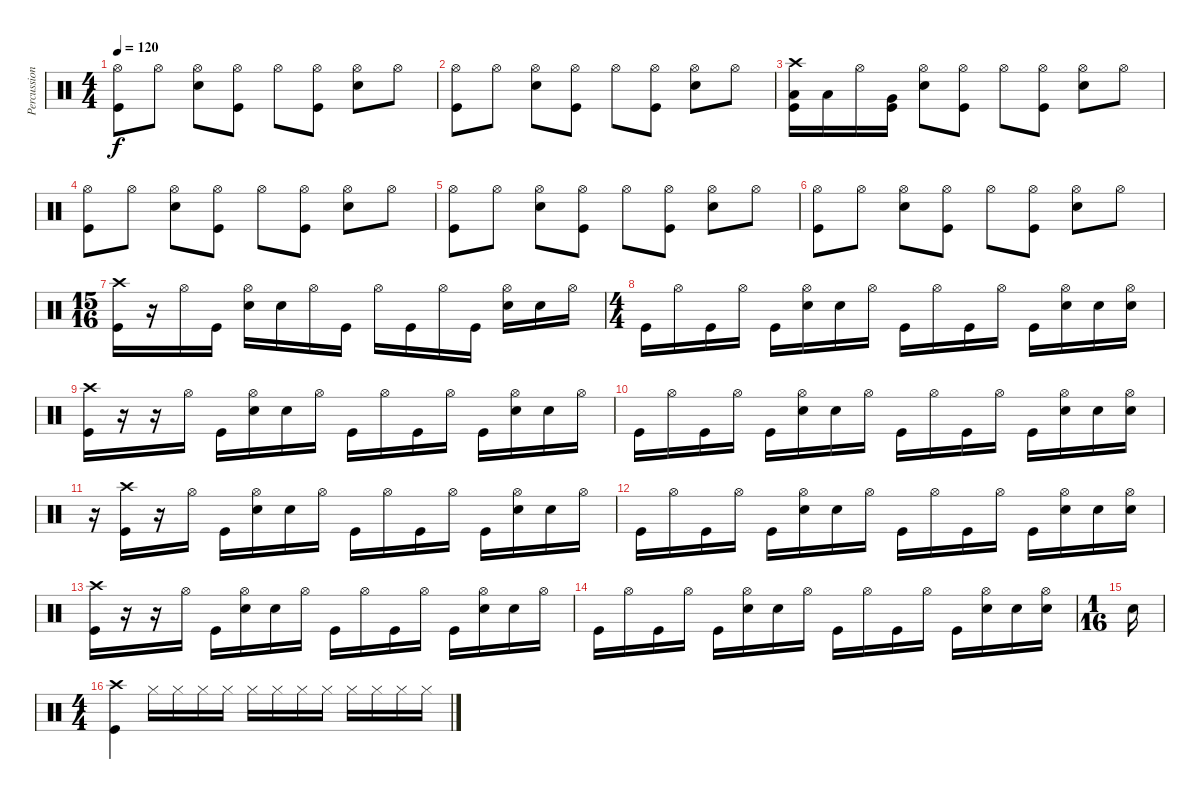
\track ("Percussion" "Percussion") {instrument percussion}
\staff {score}
\articulation defaults
\ts (4 4)
\tempo 120
\clef neutral
\ks c
("Hi-Hat (open)" "Kick (hit)").8{dy f} "Hi-Hat (open)".8 ("Hi-Hat (open)" "Snare (hit) 2").8 ("Hi-Hat (open)" "Kick (hit)").8 "Hi-Hat (open)".8 ("Hi-Hat (open)" "Kick (hit)").8 ("Hi-Hat (open)" "Snare (hit) 2").8 "Hi-Hat (open)".8 |
("Hi-Hat (open)" "Kick (hit)").8 "Hi-Hat (open)".8 ("Hi-Hat (open)" "Snare (hit) 2").8 ("Hi-Hat (open)" "Kick (hit)").8 "Hi-Hat (open)".8 ("Hi-Hat (open)" "Kick (hit)").8 ("Hi-Hat (open)" "Snare (hit) 2").8 "Hi-Hat (open)".8 |
("Crash high (hit)" "Low Tom (hit)" "Kick (hit)").16 "Low Tom (hit)".16 "Hi-Hat (open)".16 ("Very Low Tom (hit)" "Kick (hit)").16 ("Hi-Hat (open)" "Snare (hit) 2").8 ("Hi-Hat (open)" "Kick (hit)").8 "Hi-Hat (open)".8 ("Hi-Hat (open)" "Kick (hit)").8 ("Hi-Hat (open)" "Snare (hit) 2").8 "Hi-Hat (open)".8 |
("Hi-Hat (open)" "Kick (hit)").8 "Hi-Hat (open)".8 ("Hi-Hat (open)" "Snare (hit) 2").8 ("Hi-Hat (open)" "Kick (hit)").8 "Hi-Hat (open)".8 ("Hi-Hat (open)" "Kick (hit)").8 ("Hi-Hat (open)" "Snare (hit) 2").8 "Hi-Hat (open)".8 |
("Hi-Hat (open)" "Kick (hit)").8 "Hi-Hat (open)".8 ("Hi-Hat (open)" "Snare (hit) 2").8 ("Hi-Hat (open)" "Kick (hit)").8 "Hi-Hat (open)".8 ("Hi-Hat (open)" "Kick (hit)").8 ("Hi-Hat (open)" "Snare (hit) 2").8 "Hi-Hat (open)".8 |
("Hi-Hat (open)" "Kick (hit)").8 "Hi-Hat (open)".8 ("Hi-Hat (open)" "Snare (hit) 2").8 ("Hi-Hat (open)" "Kick (hit)").8 "Hi-Hat (open)".8 ("Hi-Hat (open)" "Kick (hit)").8 ("Hi-Hat (open)" "Snare (hit) 2").8 "Hi-Hat (open)".8 |
\ts (15 16)
("Crash high (hit)" "Kick (hit)").16 r.16 "Hi-Hat (open)".16 "Kick (hit)".16 ("Hi-Hat (open)" "Snare (hit) 2").16 "Snare (hit) 2".16 "Hi-Hat (open)".16 "Kick (hit)".16 "Hi-Hat (open)".16 "Kick (hit)".16 "Hi-Hat (open)".16 "Kick (hit)".16 ("Hi-Hat (open)" "Snare (hit) 2").16 "Snare (hit) 2".16 "Hi-Hat (open)".16 |
\ts (4 4)
"Kick (hit)".16 "Hi-Hat (open)".16 "Kick (hit)".16 "Hi-Hat (open)".16 "Kick (hit)".16 ("Hi-Hat (open)" "Snare (hit) 2").16 "Snare (hit) 2".16 "Hi-Hat (open)".16 "Kick (hit)".16 "Hi-Hat (open)".16 "Kick (hit)".16 "Hi-Hat (open)".16 "Kick (hit)".16 ("Hi-Hat (open)" "Snare (hit) 2").16 "Snare (hit) 2".16 ("Hi-Hat (open)" "Snare (hit) 2").16 |
("Crash high (hit)" "Kick (hit)").16 r.16 r.16 "Hi-Hat (open)".16 "Kick (hit)".16 ("Hi-Hat (open)" "Snare (hit) 2").16 "Snare (hit) 2".16 "Hi-Hat (open)".16 "Kick (hit)".16 "Hi-Hat (open)".16 "Kick (hit)".16 "Hi-Hat (open)".16 "Kick (hit)".16 ("Hi-Hat (open)" "Snare (hit) 2").16 "Snare (hit) 2".16 "Hi-Hat (open)".16 |
"Kick (hit)".16 "Hi-Hat (open)".16 "Kick (hit)".16 "Hi-Hat (open)".16 "Kick (hit)".16 ("Hi-Hat (open)" "Snare (hit) 2").16 "Snare (hit) 2".16 "Hi-Hat (open)".16 "Kick (hit)".16 "Hi-Hat (open)".16 "Kick (hit)".16 "Hi-Hat (open)".16 "Kick (hit)".16 ("Hi-Hat (open)" "Snare (hit) 2").16 "Snare (hit) 2".16 ("Hi-Hat (open)" "Snare (hit) 2").16 |
r.16 ("Crash high (hit)" "Kick (hit)").16 r.16 "Hi-Hat (open)".16 "Kick (hit)".16 ("Hi-Hat (open)" "Snare (hit) 2").16 "Snare (hit) 2".16 "Hi-Hat (open)".16 "Kick (hit)".16 "Hi-Hat (open)".16 "Kick (hit)".16 "Hi-Hat (open)".16 "Kick (hit)".16 ("Hi-Hat (open)" "Snare (hit) 2").16 "Snare (hit) 2".16 "Hi-Hat (open)".16 |
"Kick (hit)".16 "Hi-Hat (open)".16 "Kick (hit)".16 "Hi-Hat (open)".16 "Kick (hit)".16 ("Hi-Hat (open)" "Snare (hit) 2").16 "Snare (hit) 2".16 "Hi-Hat (open)".16 "Kick (hit)".16 "Hi-Hat (open)".16 "Kick (hit)".16 "Hi-Hat (open)".16 "Kick (hit)".16 ("Hi-Hat (open)" "Snare (hit) 2").16 "Snare (hit) 2".16 ("Hi-Hat (open)" "Snare (hit) 2").16 |
("Crash high (hit)" "Kick (hit)").16 r.16 r.16 "Hi-Hat (open)".16 "Kick (hit)".16 ("Hi-Hat (open)" "Snare (hit) 2").16 "Snare (hit) 2".16 "Hi-Hat (open)".16 "Kick (hit)".16 "Hi-Hat (open)".16 "Kick (hit)".16 "Hi-Hat (open)".16 "Kick (hit)".16 ("Hi-Hat (open)" "Snare (hit) 2").16 "Snare (hit) 2".16 "Hi-Hat (open)".16 |
"Kick (hit)".16 "Hi-Hat (open)".16 "Kick (hit)".16 "Hi-Hat (open)".16 "Kick (hit)".16 ("Hi-Hat (open)" "Snare (hit) 2").16 "Snare (hit) 2".16 "Hi-Hat (open)".16 "Kick (hit)".16 "Hi-Hat (open)".16 "Kick (hit)".16 "Hi-Hat (open)".16 "Kick (hit)".16 ("Hi-Hat (open)" "Snare (hit) 2").16 "Snare (hit) 2".16 ("Hi-Hat (open)" "Snare (hit) 2").16 |
\ts (1 16)
"Snare (hit) 2".16 |
\ts (4 4)
("Crash high (hit)" "Kick (hit)").4 "Hi-Hat (closed)".16 "Hi-Hat (closed)".16 "Hi-Hat (closed)".16 "Hi-Hat (closed)".16 "Hi-Hat (closed)".16 "Hi-Hat (closed)".16 "Hi-Hat (closed)".16 "Hi-Hat (closed)".16 "Hi-Hat (closed)".16 "Hi-Hat (closed)".16 "Hi-Hat (closed)".16 "Hi-Hat (closed)".16
